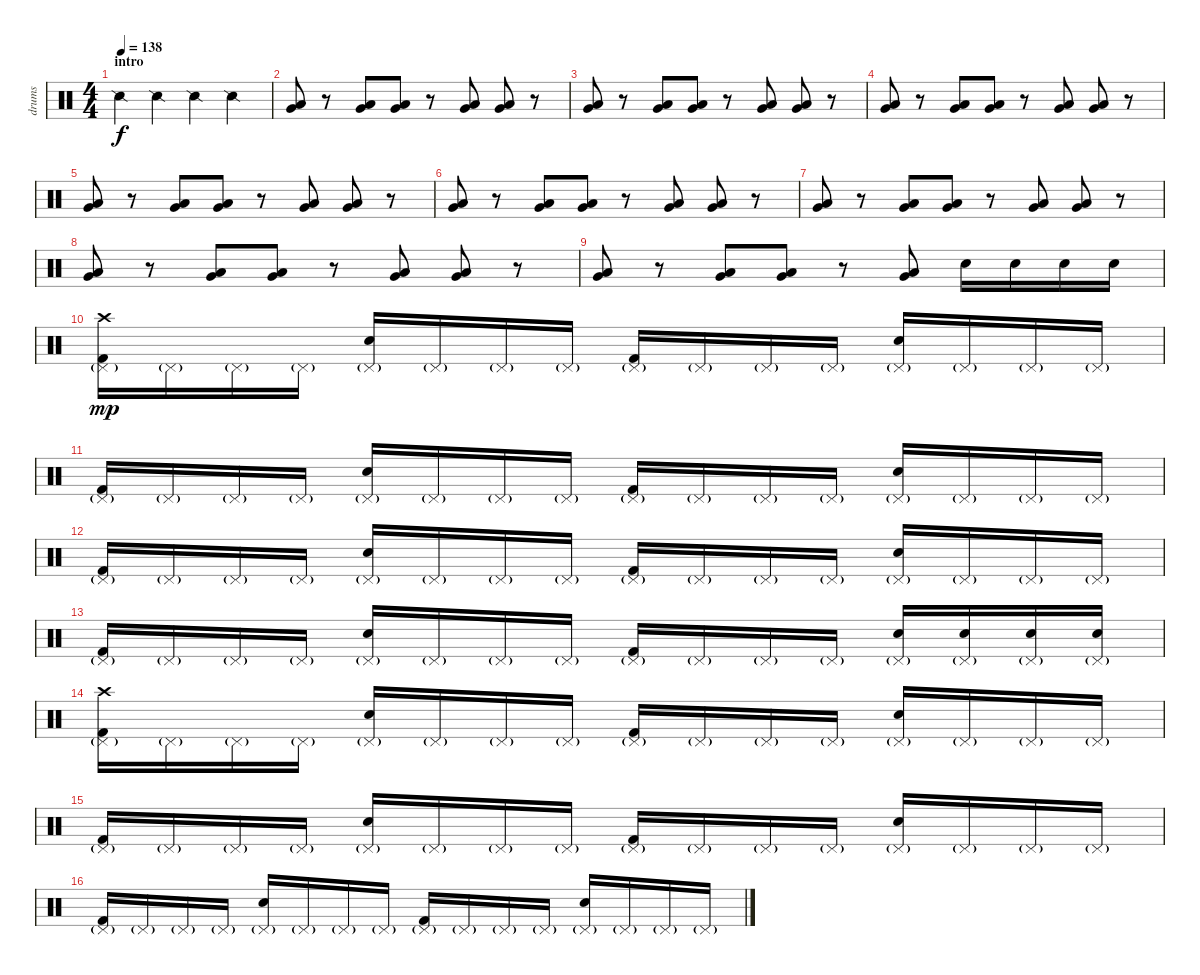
\track ("drums" "drums") {instrument percussion}
\staff {score}
\articulation defaults
\ts (4 4)
\section ("" "intro")
\tempo 138
\clef neutral
\ks c "Snare (side stick) 2".4{dy f} "Snare (side stick) 2".4 "Snare (side stick) 2".4 "Snare (side stick) 2".4
|
("Very Low Tom (hit)" "Low Floor Tom (hit)").8 r.8 ("Very Low Tom (hit)" "Low Floor Tom (hit)").8 ("Very Low Tom (hit)" "Low Floor Tom (hit)").8 r.8 ("Very Low Tom (hit)" "Low Floor Tom (hit)").8 ("Very Low Tom (hit)" "Low Floor Tom (hit)").8 r.8 |
("Very Low Tom (hit)" "Low Floor Tom (hit)").8 r.8 ("Very Low Tom (hit)" "Low Floor Tom (hit)").8 ("Very Low Tom (hit)" "Low Floor Tom (hit)").8 r.8 ("Very Low Tom (hit)" "Low Floor Tom (hit)").8 ("Very Low Tom (hit)" "Low Floor Tom (hit)").8 r.8 |
("Very Low Tom (hit)" "Low Floor Tom (hit)").8 r.8 ("Very Low Tom (hit)" "Low Floor Tom (hit)").8 ("Very Low Tom (hit)" "Low Floor Tom (hit)").8 r.8 ("Very Low Tom (hit)" "Low Floor Tom (hit)").8 ("Very Low Tom (hit)" "Low Floor Tom (hit)").8 r.8 |
("Very Low Tom (hit)" "Low Floor Tom (hit)").8 r.8 ("Very Low Tom (hit)" "Low Floor Tom (hit)").8 ("Very Low Tom (hit)" "Low Floor Tom (hit)").8 r.8 ("Very Low Tom (hit)" "Low Floor Tom (hit)").8 ("Very Low Tom (hit)" "Low Floor Tom (hit)").8 r.8 |
("Very Low Tom (hit)" "Low Floor Tom (hit)").8 r.8 ("Very Low Tom (hit)" "Low Floor Tom (hit)").8 ("Very Low Tom (hit)" "Low Floor Tom (hit)").8 r.8 ("Very Low Tom (hit)" "Low Floor Tom (hit)").8 ("Very Low Tom (hit)" "Low Floor Tom (hit)").8 r.8 |
("Very Low Tom (hit)" "Low Floor Tom (hit)").8 r.8 ("Very Low Tom (hit)" "Low Floor Tom (hit)").8 ("Very Low Tom (hit)" "Low Floor Tom (hit)").8 r.8 ("Very Low Tom (hit)" "Low Floor Tom (hit)").8 ("Very Low Tom (hit)" "Low Floor Tom (hit)").8 r.8 |
("Very Low Tom (hit)" "Low Floor Tom (hit)").8 r.8 ("Very Low Tom (hit)" "Low Floor Tom (hit)").8 ("Very Low Tom (hit)" "Low Floor Tom (hit)").8 r.8 ("Very Low Tom (hit)" "Low Floor Tom (hit)").8 ("Very Low Tom (hit)" "Low Floor Tom (hit)").8 r.8 |
("Very Low Tom (hit)" "Low Floor Tom (hit)").8 r.8 ("Very Low Tom (hit)" "Low Floor Tom (hit)").8 ("Very Low Tom (hit)" "Low Floor Tom (hit)").8 r.8 ("Very Low Tom (hit)" "Low Floor Tom (hit)").8 "Electric Snare (hit)".16 "Electric Snare (hit)".16 "Electric Snare (hit)".16 "Electric Snare (hit)".16 |
("Kick (hit) 2" "Pedal Hi-Hat (hit)"{g} "Crash high (hit)").16{dy mp} "Pedal Hi-Hat (hit)"{g}.16 "Pedal Hi-Hat (hit)"{g}.16 "Pedal Hi-Hat (hit)"{g}.16 ("Electric Snare (hit)" "Pedal Hi-Hat (hit)"{g}).16 "Pedal Hi-Hat (hit)"{g}.16 "Pedal Hi-Hat (hit)"{g}.16 "Pedal Hi-Hat (hit)"{g}.16 ("Kick (hit) 2" "Pedal Hi-Hat (hit)"{g}).16 "Pedal Hi-Hat (hit)"{g}.16 "Pedal Hi-Hat (hit)"{g}.16 "Pedal Hi-Hat (hit)"{g}.16 ("Electric Snare (hit)" "Pedal Hi-Hat (hit)"{g}).16 "Pedal Hi-Hat (hit)"{g}.16 "Pedal Hi-Hat (hit)"{g}.16 "Pedal Hi-Hat (hit)"{g}.16 |
("Kick (hit) 2" "Pedal Hi-Hat (hit)"{g}).16 "Pedal Hi-Hat (hit)"{g}.16 "Pedal Hi-Hat (hit)"{g}.16 "Pedal Hi-Hat (hit)"{g}.16 ("Electric Snare (hit)" "Pedal Hi-Hat (hit)"{g}).16 "Pedal Hi-Hat (hit)"{g}.16 "Pedal Hi-Hat (hit)"{g}.16 "Pedal Hi-Hat (hit)"{g}.16 ("Kick (hit) 2" "Pedal Hi-Hat (hit)"{g}).16 "Pedal Hi-Hat (hit)"{g}.16 "Pedal Hi-Hat (hit)"{g}.16 "Pedal Hi-Hat (hit)"{g}.16 ("Electric Snare (hit)" "Pedal Hi-Hat (hit)"{g}).16 "Pedal Hi-Hat (hit)"{g}.16 "Pedal Hi-Hat (hit)"{g}.16 "Pedal Hi-Hat (hit)"{g}.16 |
("Kick (hit) 2" "Pedal Hi-Hat (hit)"{g}).16 "Pedal Hi-Hat (hit)"{g}.16 "Pedal Hi-Hat (hit)"{g}.16 "Pedal Hi-Hat (hit)"{g}.16 ("Electric Snare (hit)" "Pedal Hi-Hat (hit)"{g}).16 "Pedal Hi-Hat (hit)"{g}.16 "Pedal Hi-Hat (hit)"{g}.16 "Pedal Hi-Hat (hit)"{g}.16 ("Kick (hit) 2" "Pedal Hi-Hat (hit)"{g}).16 "Pedal Hi-Hat (hit)"{g}.16 "Pedal Hi-Hat (hit)"{g}.16 "Pedal Hi-Hat (hit)"{g}.16 ("Electric Snare (hit)" "Pedal Hi-Hat (hit)"{g}).16 "Pedal Hi-Hat (hit)"{g}.16 "Pedal Hi-Hat (hit)"{g}.16 "Pedal Hi-Hat (hit)"{g}.16 |
("Kick (hit) 2" "Pedal Hi-Hat (hit)"{g}).16 "Pedal Hi-Hat (hit)"{g}.16 "Pedal Hi-Hat (hit)"{g}.16 "Pedal Hi-Hat (hit)"{g}.16 ("Electric Snare (hit)" "Pedal Hi-Hat (hit)"{g}).16 "Pedal Hi-Hat (hit)"{g}.16 "Pedal Hi-Hat (hit)"{g}.16 "Pedal Hi-Hat (hit)"{g}.16 ("Kick (hit) 2" "Pedal Hi-Hat (hit)"{g}).16 "Pedal Hi-Hat (hit)"{g}.16 "Pedal Hi-Hat (hit)"{g}.16 "Pedal Hi-Hat (hit)"{g}.16 ("Electric Snare (hit)" "Pedal Hi-Hat (hit)"{g}).16 ("Electric Snare (hit)" "Pedal Hi-Hat (hit)"{g}).16 ("Electric Snare (hit)" "Pedal Hi-Hat (hit)"{g}).16 ("Electric Snare (hit)" "Pedal Hi-Hat (hit)"{g}).16 |
("Kick (hit) 2" "Pedal Hi-Hat (hit)"{g} "Crash high (hit)").16 "Pedal Hi-Hat (hit)"{g}.16 "Pedal Hi-Hat (hit)"{g}.16 "Pedal Hi-Hat (hit)"{g}.16 ("Electric Snare (hit)" "Pedal Hi-Hat (hit)"{g}).16 "Pedal Hi-Hat (hit)"{g}.16 "Pedal Hi-Hat (hit)"{g}.16 "Pedal Hi-Hat (hit)"{g}.16 ("Kick (hit) 2" "Pedal Hi-Hat (hit)"{g}).16 "Pedal Hi-Hat (hit)"{g}.16 "Pedal Hi-Hat (hit)"{g}.16 "Pedal Hi-Hat (hit)"{g}.16 ("Electric Snare (hit)" "Pedal Hi-Hat (hit)"{g}).16 "Pedal Hi-Hat (hit)"{g}.16 "Pedal Hi-Hat (hit)"{g}.16 "Pedal Hi-Hat (hit)"{g}.16 |
("Kick (hit) 2" "Pedal Hi-Hat (hit)"{g}).16 "Pedal Hi-Hat (hit)"{g}.16 "Pedal Hi-Hat (hit)"{g}.16 "Pedal Hi-Hat (hit)"{g}.16 ("Electric Snare (hit)" "Pedal Hi-Hat (hit)"{g}).16 "Pedal Hi-Hat (hit)"{g}.16 "Pedal Hi-Hat (hit)"{g}.16 "Pedal Hi-Hat (hit)"{g}.16 ("Kick (hit) 2" "Pedal Hi-Hat (hit)"{g}).16 "Pedal Hi-Hat (hit)"{g}.16 "Pedal Hi-Hat (hit)"{g}.16 "Pedal Hi-Hat (hit)"{g}.16 ("Electric Snare (hit)" "Pedal Hi-Hat (hit)"{g}).16 "Pedal Hi-Hat (hit)"{g}.16 "Pedal Hi-Hat (hit)"{g}.16 "Pedal Hi-Hat (hit)"{g}.16 |
("Kick (hit) 2" "Pedal Hi-Hat (hit)"{g}).16 "Pedal Hi-Hat (hit)"{g}.16 "Pedal Hi-Hat (hit)"{g}.16 "Pedal Hi-Hat (hit)"{g}.16 ("Electric Snare (hit)" "Pedal Hi-Hat (hit)"{g}).16 "Pedal Hi-Hat (hit)"{g}.16 "Pedal Hi-Hat (hit)"{g}.16 "Pedal Hi-Hat (hit)"{g}.16 ("Kick (hit) 2" "Pedal Hi-Hat (hit)"{g}).16 "Pedal Hi-Hat (hit)"{g}.16 "Pedal Hi-Hat (hit)"{g}.16 "Pedal Hi-Hat (hit)"{g}.16 ("Electric Snare (hit)" "Pedal Hi-Hat (hit)"{g}).16 "Pedal Hi-Hat (hit)"{g}.16 "Pedal Hi-Hat (hit)"{g}.16 "Pedal Hi-Hat (hit)"{g}.16
